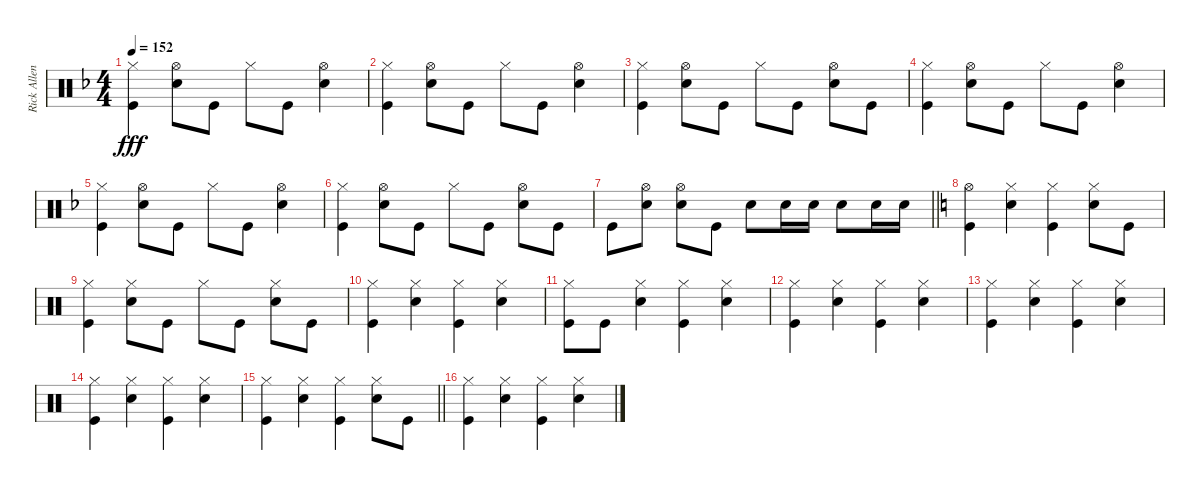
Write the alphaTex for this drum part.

\track ("Rick Allen" "Rick Allen") {instrument percussion}
\staff {score}
\articulation defaults
\ts (4 4)
\tempo 152
\clef neutral
\ks dminor
("Hi-Hat (closed)" "Kick (hit)").4{dy fff} ("Hi-Hat (open)" "Snare (hit) 2").8 "Kick (hit)".8 "Hi-Hat (closed)".8 "Kick (hit)".8 ("Hi-Hat (open)" "Snare (hit) 2").4 |
("Hi-Hat (closed)" "Kick (hit)").4 ("Hi-Hat (open)" "Snare (hit) 2").8 "Kick (hit)".8 "Hi-Hat (closed)".8 "Kick (hit)".8 ("Hi-Hat (open)" "Snare (hit) 2").4 |
("Hi-Hat (closed)" "Kick (hit)").4 ("Hi-Hat (open)" "Snare (hit) 2").8 "Kick (hit)".8 "Hi-Hat (closed)".8 "Kick (hit)".8 ("Hi-Hat (open)" "Snare (hit) 2").8 "Kick (hit)".8 |
("Hi-Hat (closed)" "Kick (hit)").4 ("Hi-Hat (open)" "Snare (hit) 2").8 "Kick (hit)".8 "Hi-Hat (closed)".8 "Kick (hit)".8 ("Hi-Hat (open)" "Snare (hit) 2").4 |
("Hi-Hat (closed)" "Kick (hit)").4 ("Hi-Hat (open)" "Snare (hit) 2").8 "Kick (hit)".8 "Hi-Hat (closed)".8 "Kick (hit)".8 ("Hi-Hat (open)" "Snare (hit) 2").4 |
("Hi-Hat (closed)" "Kick (hit)").4 ("Hi-Hat (open)" "Snare (hit) 2").8 "Kick (hit)".8 "Hi-Hat (closed)".8 "Kick (hit)".8 ("Hi-Hat (open)" "Snare (hit) 2").8 "Kick (hit)".8 |
\barLineRight lightlight "Kick (hit)".8
("Hi-Hat (open)" "Snare (hit) 2").8 ("Hi-Hat (open)" "Snare (hit) 2").8 "Kick (hit)".8 "Snare (hit) 2".8 "Snare (hit) 2".16 "Snare (hit) 2".16 "Snare (hit) 2".8 "Snare (hit) 2".16 "Snare (hit) 2".16 |
\ks aminor
("Hi-Hat (open)" "Kick (hit)").4 ("Hi-Hat (closed)" "Snare (hit) 2").4 ("Hi-Hat (closed)" "Kick (hit)").4 ("Hi-Hat (closed)" "Snare (hit) 2").8 "Kick (hit)".8 |
\ks c
("Hi-Hat (closed)" "Kick (hit)").4 ("Hi-Hat (closed)" "Snare (hit) 2").8 "Kick (hit)".8 "Hi-Hat (closed)".8 "Kick (hit)".8 ("Hi-Hat (closed)" "Snare (hit) 2").8 "Kick (hit)".8 |
("Hi-Hat (closed)" "Kick (hit)").4 ("Hi-Hat (closed)" "Snare (hit) 2").4 ("Hi-Hat (closed)" "Kick (hit)").4 ("Hi-Hat (closed)" "Snare (hit) 2").4 |
("Hi-Hat (closed)" "Kick (hit)").8 "Kick (hit)".8 ("Hi-Hat (closed)" "Snare (hit) 2").4 ("Hi-Hat (closed)" "Kick (hit)").4 ("Hi-Hat (closed)" "Snare (hit) 2").4 |
("Hi-Hat (closed)" "Kick (hit)").4 ("Hi-Hat (closed)" "Snare (hit) 2").4 ("Hi-Hat (closed)" "Kick (hit)").4 ("Hi-Hat (closed)" "Snare (hit) 2").4 |
("Hi-Hat (closed)" "Kick (hit)").4 ("Hi-Hat (closed)" "Snare (hit) 2").4 ("Hi-Hat (closed)" "Kick (hit)").4 ("Hi-Hat (closed)" "Snare (hit) 2").4 |
("Hi-Hat (closed)" "Kick (hit)").4 ("Hi-Hat (closed)" "Snare (hit) 2").4 ("Hi-Hat (closed)" "Kick (hit)").4 ("Hi-Hat (closed)" "Snare (hit) 2").4 |
\barLineRight lightlight
("Hi-Hat (closed)" "Kick (hit)").4 ("Hi-Hat (closed)" "Snare (hit) 2").4 ("Hi-Hat (closed)" "Kick (hit)").4 ("Hi-Hat (closed)" "Snare (hit) 2").8 "Kick (hit)".8 |
("Hi-Hat (closed)" "Kick (hit)").4 ("Hi-Hat (closed)" "Snare (hit) 2").4 ("Hi-Hat (closed)" "Kick (hit)").4 ("Hi-Hat (closed)" "Snare (hit) 2").4
